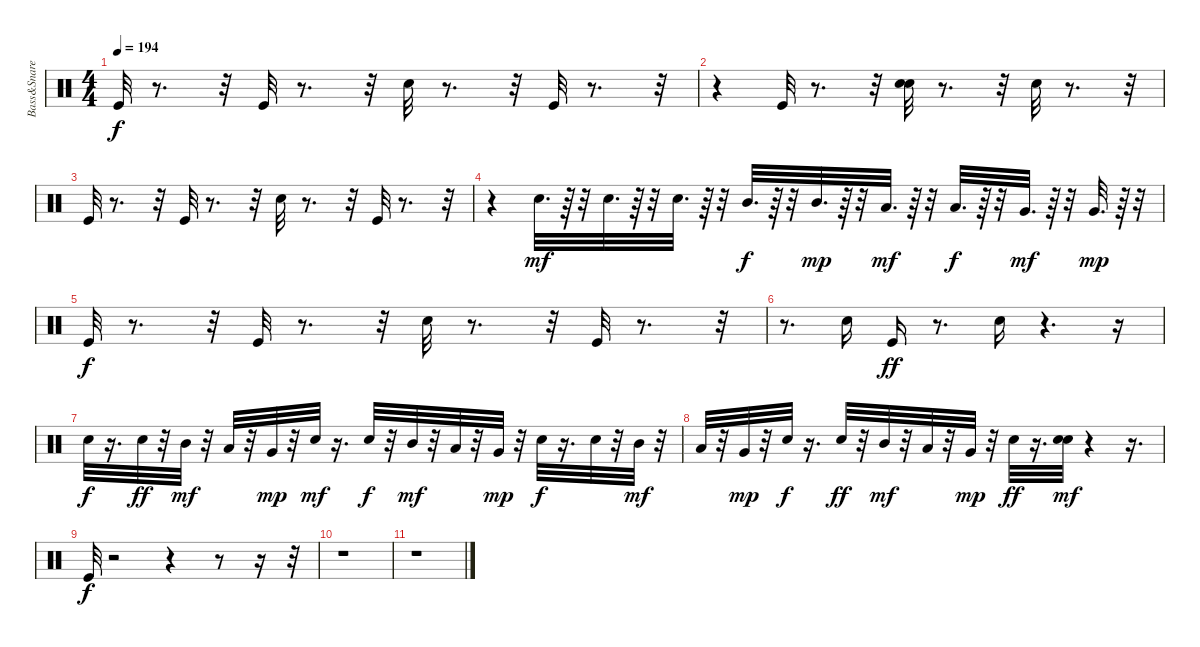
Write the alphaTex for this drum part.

\track ("Bass&Snare" "Bass&Snare") {instrument percussion}
\staff {score}
\articulation defaults
\ts (4 4)
\tempo 194
\clef neutral
\ks c "Kick (hit)".32{dy f}
r.8{d} r.32 "Kick (hit)".32 r.8{d} r.32 "Snare (hit) 2".32 r.8{d} r.32 "Kick (hit)".32 r.8{d} r.32 |
r.4 "Kick (hit)".32 r.8{d} r.32 ("Snare (hit) 2" "Snare (hit)").32 r.8{d} r.32 "Snare (hit) 2".32 r.8{d} r.32 |
"Kick (hit)".32 r.8{d} r.32 "Kick (hit)".32 r.8{d} r.32 "Snare (hit) 2".32 r.8{d} r.32 "Kick (hit)".32 r.8{d} r.32 |
r.4 "Snare (hit) 2".32{d dy mf} r.64 r.32 "Snare (hit) 2".32{d} r.64 r.32 "Snare (hit) 2".32{d} r.64 r.32 "Mid Tom (hit)".32{d dy f} r.64 r.32 "Mid Tom (hit)".32{d dy mp} r.64 r.32 "Low Tom (hit)".32{d dy mf} r.64 r.32 "Low Tom (hit)".32{d dy f} r.64 r.32 "Very Low Tom (hit)".32{d dy mf} r.64 r.32 "Very Low Tom (hit)".32{d dy mp} r.64 r.32 |
"Kick (hit)".32{dy f} r.8{d} r.32 "Kick (hit)".32 r.8{d} r.32 "Snare (hit) 2".32 r.8{d} r.32 "Kick (hit)".32 r.8{d} r.32 |
r.8{d} "Snare (hit) 2".16 "Kick (hit)".16{dy ff} r.8{d} "Snare (hit) 2".16 r.4{d} r.16 |
"Snare (hit) 2".32{dy f} r.16{d} "Snare (hit) 2".32{dy ff} r.32 "Mid Tom (hit)".32{dy mf} r.32 "Low Tom (hit)".32 r.32 "Very Low Tom (hit)".32{dy mp} r.32 "Snare (hit) 2".32{dy mf} r.16{d} "Snare (hit) 2".32{dy f} r.32 "Mid Tom (hit)".32{dy mf} r.32 "Low Tom (hit)".32 r.32 "Very Low Tom (hit)".32{dy mp} r.32 "Snare (hit) 2".32{dy f} r.16{d} "Snare (hit) 2".32 r.32 "Mid Tom (hit)".32{dy mf} r.32 |
"Low Tom (hit)".32 r.32 "Very Low Tom (hit)".32{dy mp} r.32 "Snare (hit) 2".32{dy f} r.16{d} "Snare (hit) 2".32{dy ff} r.32 "Mid Tom (hit)".32{dy mf} r.32 "Low Tom (hit)".32 r.32 "Very Low Tom (hit)".32{dy mp} r.32 "Snare (hit) 2".32{dy ff} r.16{d} ("Snare (hit)" "Snare (hit) 2").32{dy mf} r.4 r.16{d} |
"Kick (hit)".32{dy f} r.2 r.4 r.8 r.16 r.32 |
r.1 |
r.1
